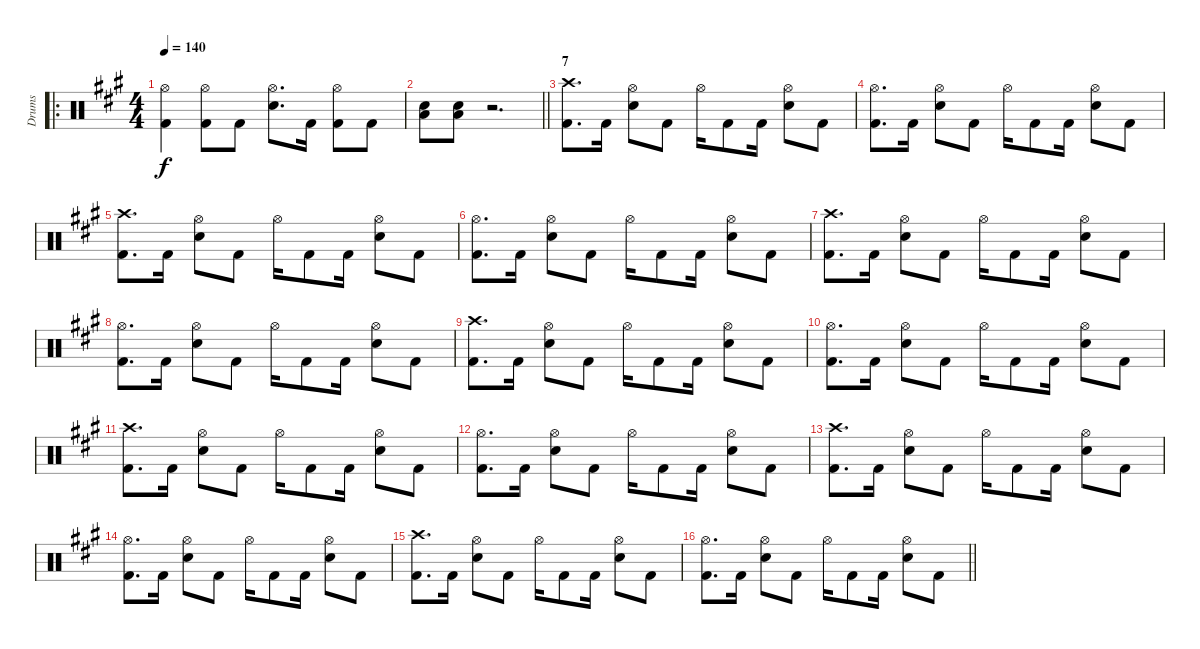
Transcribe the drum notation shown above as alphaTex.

\track ("Drums" "Drums") {instrument percussion}
\staff {score}
\articulation defaults
\ro
\ts (4 4)
\tempo 140
\clef neutral
\ks a
("Kick (hit) 2" "Hi-Hat (open)").4{dy f} ("Hi-Hat (open)" "Kick (hit) 2").8 "Kick (hit) 2".8 ("Hi-Hat (open)" "Electric Snare (hit)").8{d} "Kick (hit) 2".16 ("Hi-Hat (open)" "Kick (hit) 2").8 "Kick (hit) 2".8 |
\barLineRight lightlight
("Electric Snare (hit)" "Low Floor Tom (hit)").8 ("Electric Snare (hit)" "Low Floor Tom (hit)").8 r.2{d} |
\section ("" "7")
("Crash high (hit)" "Kick (hit) 2").8{d} "Kick (hit) 2".16 ("Hi-Hat (open)" "Electric Snare (hit)").8 "Kick (hit) 2".8 "Hi-Hat (open)".16 "Kick (hit) 2".8 "Kick (hit) 2".16 ("Hi-Hat (open)" "Electric Snare (hit)").8 "Kick (hit) 2".8 |
("Hi-Hat (open)" "Kick (hit) 2").8{d} "Kick (hit) 2".16 ("Hi-Hat (open)" "Electric Snare (hit)").8 "Kick (hit) 2".8 "Hi-Hat (open)".16 "Kick (hit) 2".8 "Kick (hit) 2".16 ("Hi-Hat (open)" "Electric Snare (hit)").8 "Kick (hit) 2".8 |
("Crash high (hit)" "Kick (hit) 2").8{d} "Kick (hit) 2".16 ("Hi-Hat (open)" "Electric Snare (hit)").8 "Kick (hit) 2".8 "Hi-Hat (open)".16 "Kick (hit) 2".8 "Kick (hit) 2".16 ("Hi-Hat (open)" "Electric Snare (hit)").8 "Kick (hit) 2".8 |
("Hi-Hat (open)" "Kick (hit) 2").8{d} "Kick (hit) 2".16 ("Hi-Hat (open)" "Electric Snare (hit)").8 "Kick (hit) 2".8 "Hi-Hat (open)".16 "Kick (hit) 2".8 "Kick (hit) 2".16 ("Hi-Hat (open)" "Electric Snare (hit)").8 "Kick (hit) 2".8 |
("Crash high (hit)" "Kick (hit) 2").8{d} "Kick (hit) 2".16 ("Hi-Hat (open)" "Electric Snare (hit)").8 "Kick (hit) 2".8 "Hi-Hat (open)".16 "Kick (hit) 2".8 "Kick (hit) 2".16 ("Hi-Hat (open)" "Electric Snare (hit)").8 "Kick (hit) 2".8 |
("Hi-Hat (open)" "Kick (hit) 2").8{d} "Kick (hit) 2".16 ("Hi-Hat (open)" "Electric Snare (hit)").8 "Kick (hit) 2".8 "Hi-Hat (open)".16 "Kick (hit) 2".8 "Kick (hit) 2".16 ("Hi-Hat (open)" "Electric Snare (hit)").8 "Kick (hit) 2".8 |
("Crash high (hit)" "Kick (hit) 2").8{d} "Kick (hit) 2".16 ("Hi-Hat (open)" "Electric Snare (hit)").8 "Kick (hit) 2".8 "Hi-Hat (open)".16 "Kick (hit) 2".8 "Kick (hit) 2".16 ("Hi-Hat (open)" "Electric Snare (hit)").8 "Kick (hit) 2".8 |
("Hi-Hat (open)" "Kick (hit) 2").8{d} "Kick (hit) 2".16 ("Hi-Hat (open)" "Electric Snare (hit)").8 "Kick (hit) 2".8 "Hi-Hat (open)".16 "Kick (hit) 2".8 "Kick (hit) 2".16 ("Hi-Hat (open)" "Electric Snare (hit)").8 "Kick (hit) 2".8 |
("Crash high (hit)" "Kick (hit) 2").8{d} "Kick (hit) 2".16 ("Hi-Hat (open)" "Electric Snare (hit)").8 "Kick (hit) 2".8 "Hi-Hat (open)".16 "Kick (hit) 2".8 "Kick (hit) 2".16 ("Hi-Hat (open)" "Electric Snare (hit)").8 "Kick (hit) 2".8 |
("Hi-Hat (open)" "Kick (hit) 2").8{d} "Kick (hit) 2".16 ("Hi-Hat (open)" "Electric Snare (hit)").8 "Kick (hit) 2".8 "Hi-Hat (open)".16 "Kick (hit) 2".8 "Kick (hit) 2".16 ("Hi-Hat (open)" "Electric Snare (hit)").8 "Kick (hit) 2".8 |
("Crash high (hit)" "Kick (hit) 2").8{d} "Kick (hit) 2".16 ("Hi-Hat (open)" "Electric Snare (hit)").8 "Kick (hit) 2".8 "Hi-Hat (open)".16 "Kick (hit) 2".8 "Kick (hit) 2".16 ("Hi-Hat (open)" "Electric Snare (hit)").8 "Kick (hit) 2".8 |
("Hi-Hat (open)" "Kick (hit) 2").8{d} "Kick (hit) 2".16 ("Hi-Hat (open)" "Electric Snare (hit)").8 "Kick (hit) 2".8 "Hi-Hat (open)".16 "Kick (hit) 2".8 "Kick (hit) 2".16 ("Hi-Hat (open)" "Electric Snare (hit)").8 "Kick (hit) 2".8 |
("Crash high (hit)" "Kick (hit) 2").8{d} "Kick (hit) 2".16 ("Hi-Hat (open)" "Electric Snare (hit)").8 "Kick (hit) 2".8 "Hi-Hat (open)".16 "Kick (hit) 2".8 "Kick (hit) 2".16 ("Hi-Hat (open)" "Electric Snare (hit)").8 "Kick (hit) 2".8 |
\barLineRight lightlight
("Hi-Hat (open)" "Kick (hit) 2").8{d} "Kick (hit) 2".16 ("Hi-Hat (open)" "Electric Snare (hit)").8 "Kick (hit) 2".8 "Hi-Hat (open)".16 "Kick (hit) 2".8 "Kick (hit) 2".16 ("Hi-Hat (open)" "Electric Snare (hit)").8 "Kick (hit) 2".8
